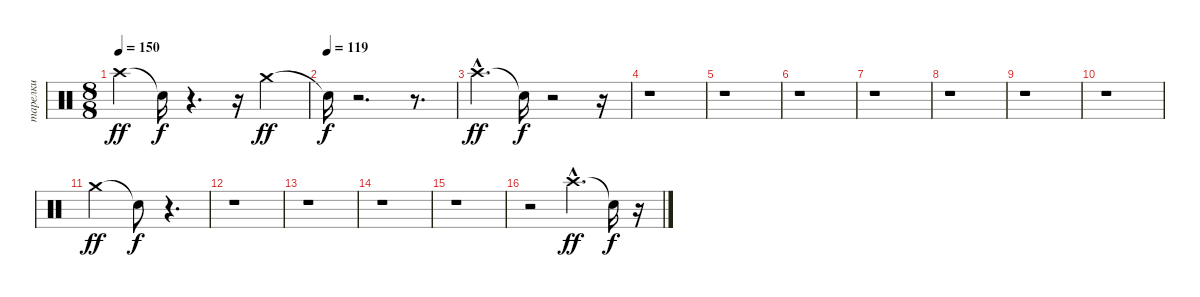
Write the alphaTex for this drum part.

\track ("тарелки" "тарелки") {instrument percussion}
\staff {score}
\articulation defaults
\ts (8 8)
\tempo 150
\clef neutral
\ks c "Crash high (hit)".4{dy ff} "Snare (hit)"{t}.16{dy f}
r.4{d} r.16 "Crash medium (hit)".4{dy ff} |
\tempo (119)
"Snare (hit)"{t}.16{dy f} r.2{d} r.8{d} |
"Crash high (hit)"{hac}.4{d dy ff} "Snare (hit)"{t}.16{dy f} r.2 r.16 |
r.1 |
r.1 |
r.1 |
r.1 |
r.1 |
r.1 |
r.1 |
"Crash medium (hit)".2{dy ff} "Snare (hit)"{t}.8{dy f} r.4{d} |
r.1 |
r.1 |
r.1 |
r.1 |
r.2 "Crash high (hit)"{hac}.4{d dy ff} "Snare (hit)"{t}.16{dy f} r.16
